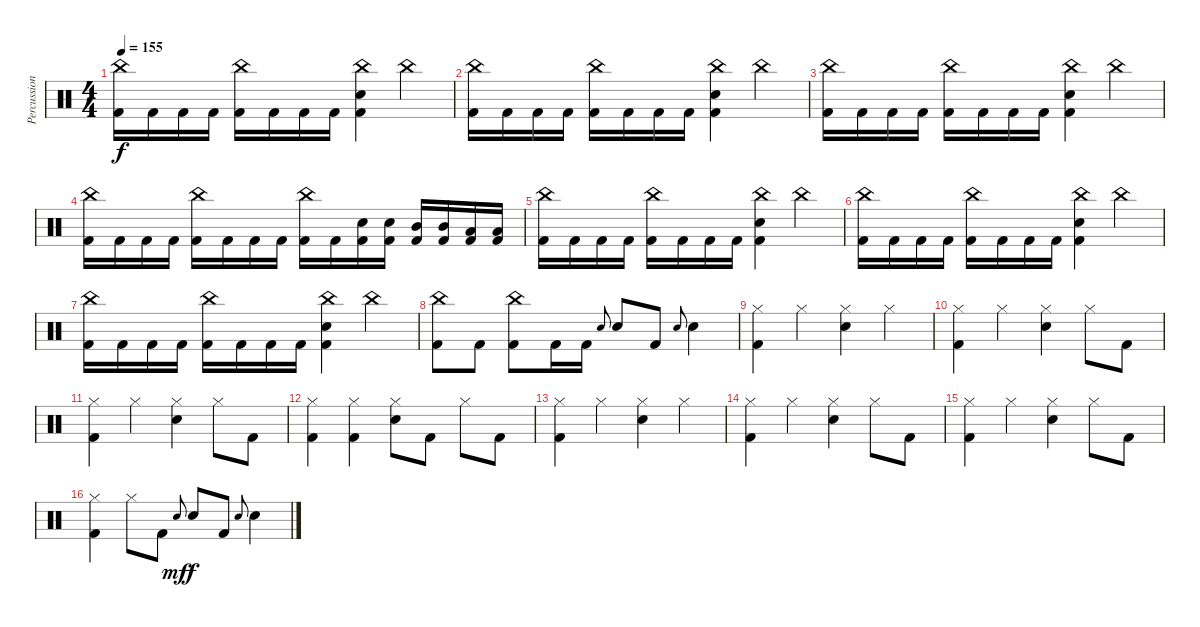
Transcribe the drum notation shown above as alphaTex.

\track ("Percussion" "Percussion") {instrument percussion}
\staff {score}
\articulation defaults
\ts (4 4)
\tempo 155
\clef neutral
\ks c
("China (hit)" "Kick (hit) 2").16{dy f} "Kick (hit) 2".16 "Kick (hit) 2".16 "Kick (hit) 2".16 ("China (hit)" "Kick (hit) 2").16 "Kick (hit) 2".16 "Kick (hit) 2".16 "Kick (hit) 2".16 ("China (hit)" "Electric Snare (hit)" "Kick (hit) 2").4 "China (hit)".4 |
("China (hit)" "Kick (hit) 2").16 "Kick (hit) 2".16 "Kick (hit) 2".16 "Kick (hit) 2".16 ("China (hit)" "Kick (hit) 2").16 "Kick (hit) 2".16 "Kick (hit) 2".16 "Kick (hit) 2".16 ("China (hit)" "Electric Snare (hit)" "Kick (hit) 2").4 "China (hit)".4 |
("China (hit)" "Kick (hit) 2").16 "Kick (hit) 2".16 "Kick (hit) 2".16 "Kick (hit) 2".16 ("China (hit)" "Kick (hit) 2").16 "Kick (hit) 2".16 "Kick (hit) 2".16 "Kick (hit) 2".16 ("China (hit)" "Electric Snare (hit)" "Kick (hit) 2").4 "China (hit)".4 |
("China (hit)" "Kick (hit) 2").16 "Kick (hit) 2".16 "Kick (hit) 2".16 "Kick (hit) 2".16 ("China (hit)" "Kick (hit) 2").16 "Kick (hit) 2".16 "Kick (hit) 2".16 "Kick (hit) 2".16 ("China (hit)" "Kick (hit) 2").16 "Kick (hit) 2".16 ("Electric Snare (hit)" "Kick (hit) 2").16 ("Electric Snare (hit)" "Kick (hit) 2").16 ("Mid Tom (hit)" "Kick (hit) 2").16 ("Mid Tom (hit)" "Kick (hit) 2").16 ("Low Tom (hit)" "Kick (hit) 2").16 ("Low Tom (hit)" "Kick (hit) 2").16 |
("China (hit)" "Kick (hit) 2").16 "Kick (hit) 2".16 "Kick (hit) 2".16 "Kick (hit) 2".16 ("China (hit)" "Kick (hit) 2").16 "Kick (hit) 2".16 "Kick (hit) 2".16 "Kick (hit) 2".16 ("China (hit)" "Electric Snare (hit)" "Kick (hit) 2").4 "China (hit)".4 |
("China (hit)" "Kick (hit) 2").16 "Kick (hit) 2".16 "Kick (hit) 2".16 "Kick (hit) 2".16 ("China (hit)" "Kick (hit) 2").16 "Kick (hit) 2".16 "Kick (hit) 2".16 "Kick (hit) 2".16 ("China (hit)" "Electric Snare (hit)" "Kick (hit) 2").4 "China (hit)".4 |
("China (hit)" "Kick (hit) 2").16 "Kick (hit) 2".16 "Kick (hit) 2".16 "Kick (hit) 2".16 ("China (hit)" "Kick (hit) 2").16 "Kick (hit) 2".16 "Kick (hit) 2".16 "Kick (hit) 2".16 ("China (hit)" "Electric Snare (hit)" "Kick (hit) 2").4 "China (hit)".4 |
("China (hit)" "Kick (hit) 2").8 "Kick (hit) 2".8 ("China (hit)" "Kick (hit) 2").8 "Kick (hit) 2".16 "Kick (hit) 2".16 "Electric Snare (hit)".8{gr onbeat} "Electric Snare (hit)".8 "Kick (hit) 2".8 "Electric Snare (hit)".8{gr onbeat} "Electric Snare (hit)".4 |
("Hi-Hat (closed)" "Kick (hit) 2").4 "Hi-Hat (closed)".4 ("Hi-Hat (closed)" "Electric Snare (hit)").4 "Hi-Hat (closed)".4 |
("Hi-Hat (closed)" "Kick (hit) 2").4 "Hi-Hat (closed)".4 ("Hi-Hat (closed)" "Electric Snare (hit)").4 "Hi-Hat (closed)".8 "Kick (hit) 2".8 |
("Hi-Hat (closed)" "Kick (hit) 2").4 "Hi-Hat (closed)".4 ("Hi-Hat (closed)" "Electric Snare (hit)").4 "Hi-Hat (closed)".8 "Kick (hit) 2".8 |
("Hi-Hat (closed)" "Kick (hit) 2").4 ("Hi-Hat (closed)" "Kick (hit) 2").4 ("Hi-Hat (closed)" "Electric Snare (hit)").8 "Kick (hit) 2".8 "Hi-Hat (closed)".8 "Kick (hit) 2".8 |
("Hi-Hat (closed)" "Kick (hit) 2").4 "Hi-Hat (closed)".4 ("Hi-Hat (closed)" "Electric Snare (hit)").4 "Hi-Hat (closed)".4 |
("Hi-Hat (closed)" "Kick (hit) 2").4 "Hi-Hat (closed)".4 ("Hi-Hat (closed)" "Electric Snare (hit)").4 "Hi-Hat (closed)".8 "Kick (hit) 2".8 |
("Hi-Hat (closed)" "Kick (hit) 2").4 "Hi-Hat (closed)".4 ("Hi-Hat (closed)" "Electric Snare (hit)").4 "Hi-Hat (closed)".8 "Kick (hit) 2".8 |
("Hi-Hat (closed)" "Kick (hit) 2").4 "Hi-Hat (closed)".8 "Kick (hit) 2".8 "Electric Snare (hit)".8{gr onbeat dy mf} "Electric Snare (hit)".8{dy f} "Kick (hit) 2".8 "Electric Snare (hit)".8{gr onbeat} "Electric Snare (hit)".4
